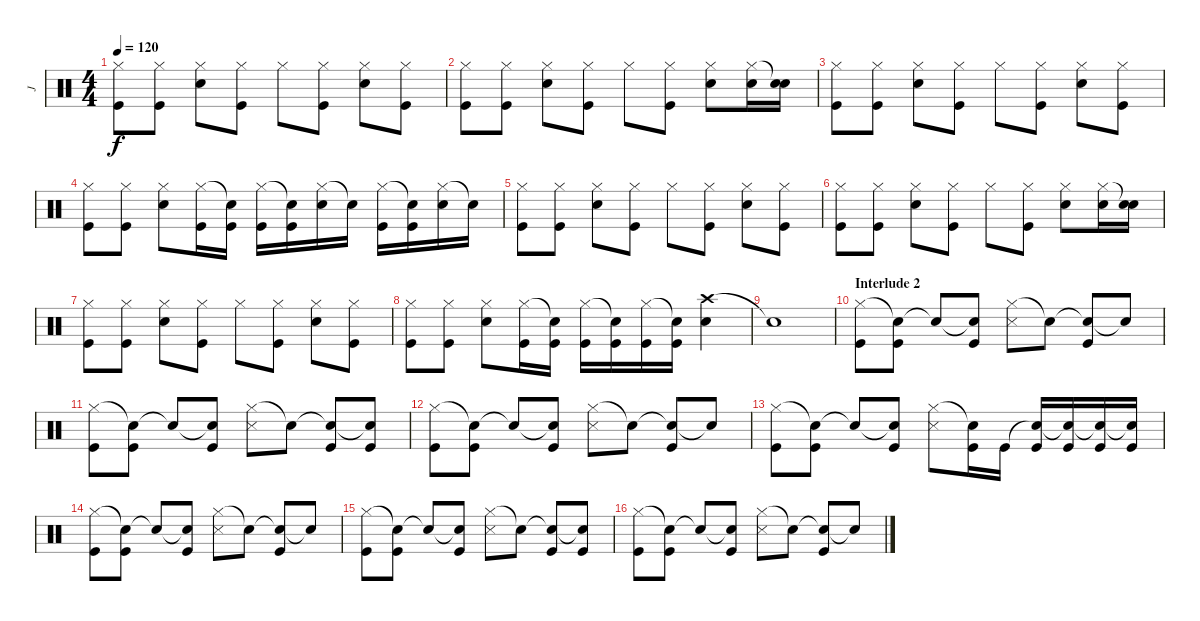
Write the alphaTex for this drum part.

\track ("J" "J") {instrument percussion}
\staff {score}
\articulation defaults
\ts (4 4)
\tempo 120
\clef neutral
\ks c
("Hi-Hat (closed)" "Kick (hit)").8{dy f} ("Hi-Hat (closed)" "Kick (hit)").8 ("Hi-Hat (closed)" "Electric Snare (hit)").8 ("Hi-Hat (closed)" "Kick (hit)").8 "Hi-Hat (closed)".8 ("Hi-Hat (closed)" "Kick (hit)").8 ("Hi-Hat (closed)" "Electric Snare (hit)").8 ("Hi-Hat (closed)" "Kick (hit)").8 |
("Hi-Hat (closed)" "Kick (hit)").8 ("Hi-Hat (closed)" "Kick (hit)").8 ("Hi-Hat (closed)" "Electric Snare (hit)").8 ("Hi-Hat (closed)" "Kick (hit)").8 "Hi-Hat (closed)".8 ("Hi-Hat (closed)" "Kick (hit)").8 ("Hi-Hat (closed)" "Electric Snare (hit)").8 ("Hi-Hat (closed)" "Electric Snare (hit)").16 ("Snare (hit)"{t} "Electric Snare (hit)").16 |
("Hi-Hat (closed)" "Kick (hit)").8 ("Hi-Hat (closed)" "Kick (hit)").8 ("Hi-Hat (closed)" "Electric Snare (hit)").8 ("Hi-Hat (closed)" "Kick (hit)").8 "Hi-Hat (closed)".8 ("Hi-Hat (closed)" "Kick (hit)").8 ("Hi-Hat (closed)" "Electric Snare (hit)").8 ("Hi-Hat (closed)" "Kick (hit)").8 |
("Hi-Hat (closed)" "Kick (hit)").8 ("Hi-Hat (closed)" "Kick (hit)").8 ("Hi-Hat (closed)" "Electric Snare (hit)").8 ("Hi-Hat (closed)" "Kick (hit)").16 ("Snare (hit)"{t} "Kick (hit)").16 ("Hi-Hat (closed)" "Kick (hit)").16 ("Snare (hit)"{t} "Kick (hit)").16 ("Hi-Hat (closed)" "Electric Snare (hit)").16 "Snare (hit)"{t}.16 ("Hi-Hat (closed)" "Kick (hit)").16 ("Snare (hit)"{t} "Kick (hit)").16 ("Hi-Hat (closed)" "Electric Snare (hit)").16 "Snare (hit)"{t}.16 |
("Hi-Hat (closed)" "Kick (hit)").8 ("Hi-Hat (closed)" "Kick (hit)").8 ("Hi-Hat (closed)" "Electric Snare (hit)").8 ("Hi-Hat (closed)" "Kick (hit)").8 "Hi-Hat (closed)".8 ("Hi-Hat (closed)" "Kick (hit)").8 ("Hi-Hat (closed)" "Electric Snare (hit)").8 ("Hi-Hat (closed)" "Kick (hit)").8 |
("Hi-Hat (closed)" "Kick (hit)").8 ("Hi-Hat (closed)" "Kick (hit)").8 ("Hi-Hat (closed)" "Electric Snare (hit)").8 ("Hi-Hat (closed)" "Kick (hit)").8 "Hi-Hat (closed)".8 ("Hi-Hat (closed)" "Kick (hit)").8 ("Hi-Hat (closed)" "Electric Snare (hit)").8 ("Hi-Hat (closed)" "Electric Snare (hit)").16 ("Snare (hit)"{t} "Electric Snare (hit)").16 |
("Hi-Hat (closed)" "Kick (hit)").8 ("Hi-Hat (closed)" "Kick (hit)").8 ("Hi-Hat (closed)" "Electric Snare (hit)").8 ("Hi-Hat (closed)" "Kick (hit)").8 "Hi-Hat (closed)".8 ("Hi-Hat (closed)" "Kick (hit)").8 ("Hi-Hat (closed)" "Electric Snare (hit)").8 ("Hi-Hat (closed)" "Kick (hit)").8 |
("Hi-Hat (closed)" "Kick (hit)").8 ("Hi-Hat (closed)" "Kick (hit)").8 ("Hi-Hat (closed)" "Electric Snare (hit)").8 ("Hi-Hat (closed)" "Kick (hit)").16 ("Snare (hit)"{t} "Kick (hit)").16 ("Hi-Hat (closed)" "Kick (hit)").16 ("Snare (hit)"{t} "Kick (hit)").16 ("Hi-Hat (closed)" "Kick (hit)").16 ("Snare (hit)"{t} "Kick (hit)").16 ("Crash high (hit)" "Electric Snare (hit)").4 |
"Snare (hit)"{t}.1 |
\section ("" "Interlude 2")
("Hi-Hat (closed)" "Kick (hit)").8 ("Snare (hit)"{t} "Kick (hit)").8 "Snare (hit)"{t}.8 ("Snare (hit)"{t} "Kick (hit)").8 ("Hi-Hat (closed)" "Snare (side stick) 3").8 "Snare (hit)"{t}.8 ("Snare (hit)"{t} "Kick (hit)").8 "Snare (hit)"{t}.8 |
("Hi-Hat (closed)" "Kick (hit)").8 ("Snare (hit)"{t} "Kick (hit)").8 "Snare (hit)"{t}.8 ("Snare (hit)"{t} "Kick (hit)").8 ("Hi-Hat (closed)" "Snare (side stick) 3").8 "Snare (hit)"{t}.8 ("Snare (hit)"{t} "Kick (hit)").8 ("Snare (hit)"{t} "Kick (hit)").8 |
("Hi-Hat (closed)" "Kick (hit)").8 ("Snare (hit)"{t} "Kick (hit)").8 "Snare (hit)"{t}.8 ("Snare (hit)"{t} "Kick (hit)").8 ("Hi-Hat (closed)" "Snare (side stick) 3").8 "Snare (hit)"{t}.8 ("Snare (hit)"{t} "Kick (hit)").8 "Snare (hit)"{t}.8 |
("Hi-Hat (closed)" "Kick (hit)").8 ("Snare (hit)"{t} "Kick (hit)").8 "Snare (hit)"{t}.8 ("Snare (hit)"{t} "Kick (hit)").8 ("Hi-Hat (closed)" "Snare (side stick) 3").8 ("Snare (hit)"{t} "Kick (hit)").16 "Kick (hit)".16 ("Snare (hit)"{t} "Kick (hit)").16 ("Snare (hit)"{t} "Kick (hit)").16 ("Snare (hit)"{t} "Kick (hit)").16 ("Snare (hit)"{t} "Kick (hit)").16 |
("Hi-Hat (closed)" "Kick (hit)").8 ("Snare (hit)"{t} "Kick (hit)").8 "Snare (hit)"{t}.8 ("Snare (hit)"{t} "Kick (hit)").8 ("Hi-Hat (closed)" "Snare (side stick) 3").8 "Snare (hit)"{t}.8 ("Snare (hit)"{t} "Kick (hit)").8 "Snare (hit)"{t}.8 |
("Hi-Hat (closed)" "Kick (hit)").8 ("Snare (hit)"{t} "Kick (hit)").8 "Snare (hit)"{t}.8 ("Snare (hit)"{t} "Kick (hit)").8 ("Hi-Hat (closed)" "Snare (side stick) 3").8 "Snare (hit)"{t}.8 ("Snare (hit)"{t} "Kick (hit)").8 ("Snare (hit)"{t} "Kick (hit)").8 |
("Hi-Hat (closed)" "Kick (hit)").8 ("Snare (hit)"{t} "Kick (hit)").8 "Snare (hit)"{t}.8 ("Snare (hit)"{t} "Kick (hit)").8 ("Hi-Hat (closed)" "Snare (side stick) 3").8 "Snare (hit)"{t}.8 ("Snare (hit)"{t} "Kick (hit)").8 "Snare (hit)"{t}.8
